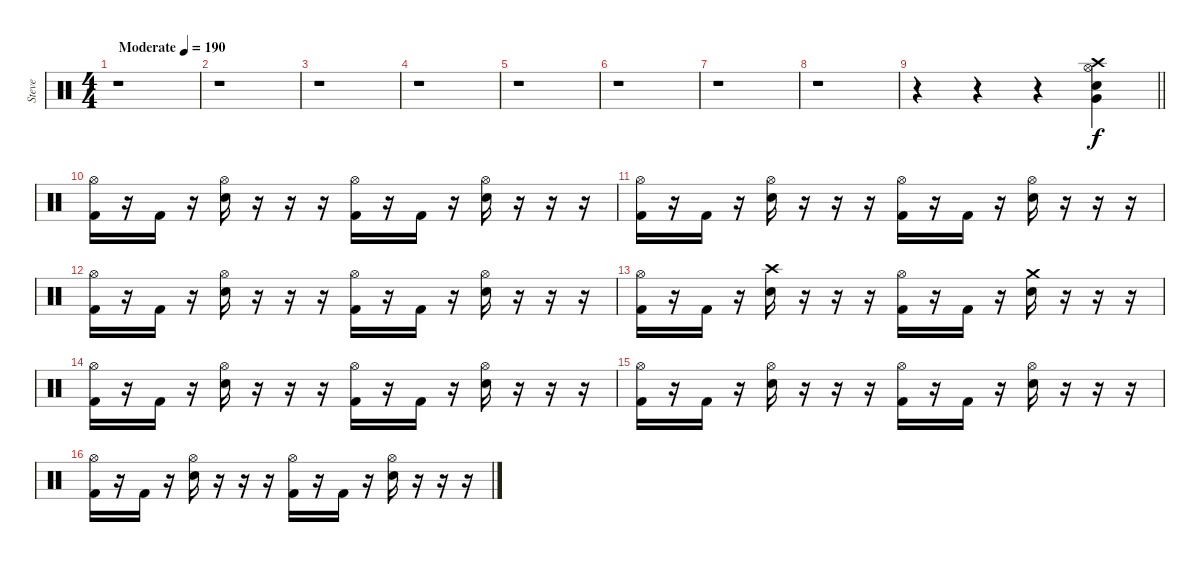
\track ("Steve" "Steve") {instrument percussion}
\staff {score}
\articulation defaults
\ts (4 4)
\tempo (190 "Moderate")
\clef neutral
\ks c
r.1{dy f} |
r.1 |
r.1 |
r.1 |
r.1 |
r.1 |
r.1 |
r.1 |
\barLineRight lightlight
r.4 r.4 r.4 ("Very Low Tom (hit)" "Snare (hit) 2" "Hi-Hat (open)" "Crash high (hit)").4 |
("Hi-Hat (open)" "Kick (hit) 2").16 r.16 "Kick (hit) 2".16 r.16 ("Hi-Hat (open)" "Snare (hit) 2").16 r.16 r.16 r.16 ("Hi-Hat (open)" "Kick (hit) 2").16 r.16 "Kick (hit) 2".16 r.16 ("Hi-Hat (open)" "Snare (hit) 2").16 r.16 r.16 r.16 |
("Hi-Hat (open)" "Kick (hit) 2").16 r.16 "Kick (hit) 2".16 r.16 ("Hi-Hat (open)" "Snare (hit) 2").16 r.16 r.16 r.16 ("Hi-Hat (open)" "Kick (hit) 2").16 r.16 "Kick (hit) 2".16 r.16 ("Hi-Hat (open)" "Snare (hit) 2").16 r.16 r.16 r.16 |
("Hi-Hat (open)" "Kick (hit) 2").16 r.16 "Kick (hit) 2".16 r.16 ("Hi-Hat (open)" "Snare (hit) 2").16 r.16 r.16 r.16 ("Hi-Hat (open)" "Kick (hit) 2").16 r.16 "Kick (hit) 2".16 r.16 ("Hi-Hat (open)" "Snare (hit) 2").16 r.16 r.16 r.16 |
("Hi-Hat (open)" "Kick (hit) 2").16 r.16 "Kick (hit) 2".16 r.16 ("Crash high (hit)" "Snare (hit) 2").16 r.16 r.16 r.16 ("Hi-Hat (open)" "Kick (hit) 2").16 r.16 "Kick (hit) 2".16 r.16 ("Crash medium (hit)" "Snare (hit) 2").16 r.16 r.16 r.16 |
("Hi-Hat (open)" "Kick (hit) 2").16 r.16 "Kick (hit) 2".16 r.16 ("Hi-Hat (open)" "Snare (hit) 2").16 r.16 r.16 r.16 ("Hi-Hat (open)" "Kick (hit) 2").16 r.16 "Kick (hit) 2".16 r.16 ("Hi-Hat (open)" "Snare (hit) 2").16 r.16 r.16 r.16 |
("Hi-Hat (open)" "Kick (hit) 2").16 r.16 "Kick (hit) 2".16 r.16 ("Hi-Hat (open)" "Snare (hit) 2").16 r.16 r.16 r.16 ("Hi-Hat (open)" "Kick (hit) 2").16 r.16 "Kick (hit) 2".16 r.16 ("Hi-Hat (open)" "Snare (hit) 2").16 r.16 r.16 r.16 |
("Hi-Hat (open)" "Kick (hit) 2").16 r.16 "Kick (hit) 2".16 r.16 ("Hi-Hat (open)" "Snare (hit) 2").16 r.16 r.16 r.16 ("Hi-Hat (open)" "Kick (hit) 2").16 r.16 "Kick (hit) 2".16 r.16 ("Hi-Hat (open)" "Snare (hit) 2").16 r.16 r.16 r.16
